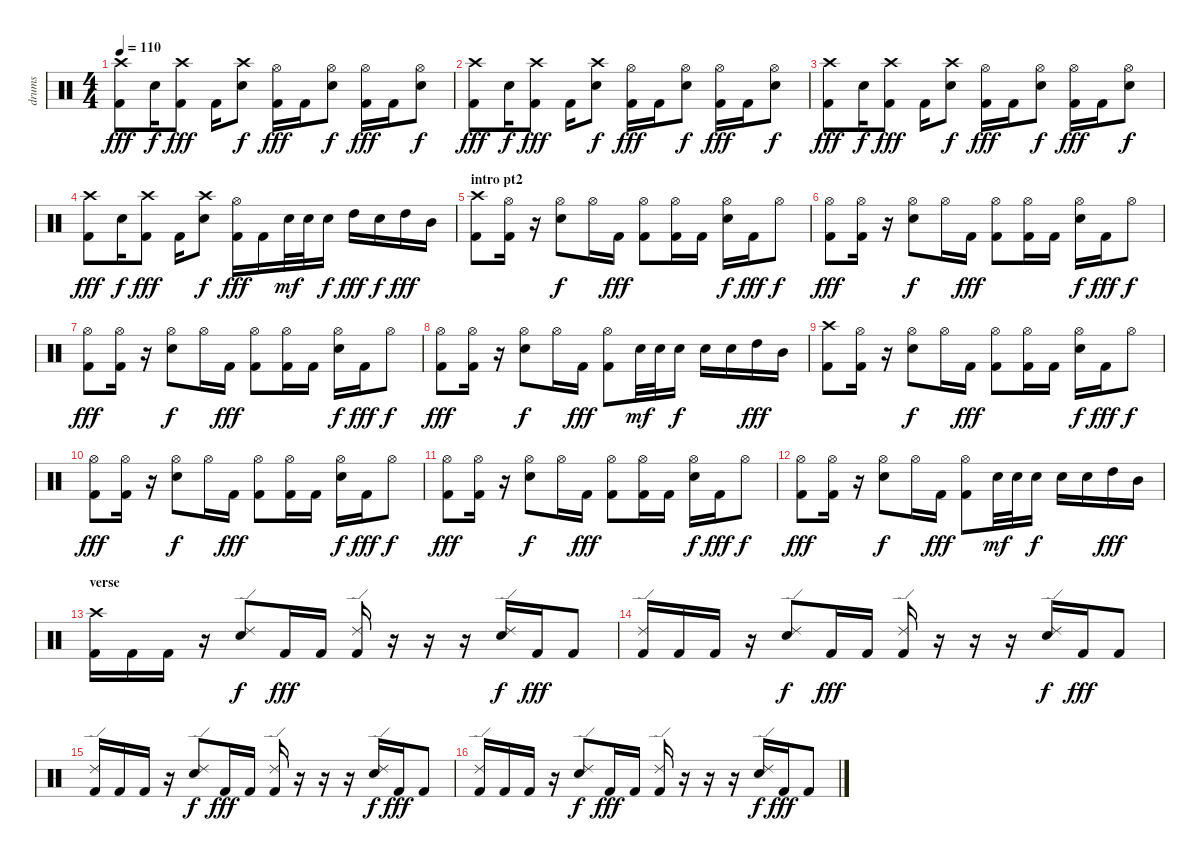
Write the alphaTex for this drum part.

\track ("drums" "drums") {instrument percussion}
\staff {score}
\articulation defaults
\ts (4 4)
\tempo 110
\clef neutral
\ks c
("Crash high (hit)" "Kick (hit) 2").8{dy fff} "Snare (hit) 2".16{dy f} ("Crash high (hit)" "Kick (hit) 2").8{dy fff} "Kick (hit) 2".16 ("Crash high (hit)" "Snare (hit) 2").8{dy f} ("Hi-Hat (open)" "Kick (hit) 2").16{dy fff} "Kick (hit) 2".16 ("Hi-Hat (open)" "Snare (hit) 2").8{dy f} ("Hi-Hat (open)" "Kick (hit) 2").16{dy fff} "Kick (hit) 2".16 ("Hi-Hat (open)" "Snare (hit) 2").8{dy f} |
("Crash high (hit)" "Kick (hit) 2").8{dy fff} "Snare (hit) 2".16{dy f} ("Crash high (hit)" "Kick (hit) 2").8{dy fff} "Kick (hit) 2".16 ("Crash high (hit)" "Snare (hit) 2").8{dy f} ("Hi-Hat (open)" "Kick (hit) 2").16{dy fff} "Kick (hit) 2".16 ("Hi-Hat (open)" "Snare (hit) 2").8{dy f} ("Hi-Hat (open)" "Kick (hit) 2").16{dy fff} "Kick (hit) 2".16 ("Hi-Hat (open)" "Snare (hit) 2").8{dy f} |
("Crash high (hit)" "Kick (hit) 2").8{dy fff} "Snare (hit) 2".16{dy f} ("Crash high (hit)" "Kick (hit) 2").8{dy fff} "Kick (hit) 2".16 ("Crash high (hit)" "Snare (hit) 2").8{dy f} ("Hi-Hat (open)" "Kick (hit) 2").16{dy fff} "Kick (hit) 2".16 ("Hi-Hat (open)" "Snare (hit) 2").8{dy f} ("Hi-Hat (open)" "Kick (hit) 2").16{dy fff} "Kick (hit) 2".16 ("Hi-Hat (open)" "Snare (hit) 2").8{dy f} |
("Crash high (hit)" "Kick (hit) 2").8{dy fff} "Snare (hit) 2".16{dy f} ("Crash high (hit)" "Kick (hit) 2").8{dy fff} "Kick (hit) 2".16 ("Crash high (hit)" "Snare (hit) 2").8{dy f} ("Hi-Hat (open)" "Kick (hit) 2").16{dy fff} "Kick (hit) 2".16 "Snare (hit) 2".32{dy mf} "Snare (hit) 2".32 "Snare (hit) 2".16{dy f} "High Tom (hit)".16{dy fff} "Snare (hit) 2".16{dy f} "High Tom (hit)".16{dy fff} "Mid Tom (hit)".16 |
\section ("" "intro pt2")
("Crash high (hit)" "Kick (hit) 2").8 ("Hi-Hat (open)" "Kick (hit) 2").16 r.16 ("Hi-Hat (open)" "Snare (hit) 2").8{dy f} "Hi-Hat (open)".16 "Kick (hit) 2".16{dy fff} ("Hi-Hat (open)" "Kick (hit) 2").8 ("Hi-Hat (open)" "Kick (hit) 2").16 "Kick (hit) 2".16 ("Hi-Hat (open)" "Snare (hit) 2").16{dy f} "Kick (hit) 2".16{dy fff} "Hi-Hat (open)".8{dy f} |
("Hi-Hat (open)" "Kick (hit) 2").8{dy fff} ("Hi-Hat (open)" "Kick (hit) 2").16 r.16 ("Hi-Hat (open)" "Snare (hit) 2").8{dy f} "Hi-Hat (open)".16 "Kick (hit) 2".16{dy fff} ("Hi-Hat (open)" "Kick (hit) 2").8 ("Hi-Hat (open)" "Kick (hit) 2").16 "Kick (hit) 2".16 ("Hi-Hat (open)" "Snare (hit) 2").16{dy f} "Kick (hit) 2".16{dy fff} "Hi-Hat (open)".8{dy f} |
("Hi-Hat (open)" "Kick (hit) 2").8{dy fff} ("Hi-Hat (open)" "Kick (hit) 2").16 r.16 ("Hi-Hat (open)" "Snare (hit) 2").8{dy f} "Hi-Hat (open)".16 "Kick (hit) 2".16{dy fff} ("Hi-Hat (open)" "Kick (hit) 2").8 ("Hi-Hat (open)" "Kick (hit) 2").16 "Kick (hit) 2".16 ("Hi-Hat (open)" "Snare (hit) 2").16{dy f} "Kick (hit) 2".16{dy fff} "Hi-Hat (open)".8{dy f} |
("Hi-Hat (open)" "Kick (hit) 2").8{dy fff} ("Hi-Hat (open)" "Kick (hit) 2").16 r.16 ("Hi-Hat (open)" "Snare (hit) 2").8{dy f} "Hi-Hat (open)".16 "Kick (hit) 2".16{dy fff} ("Hi-Hat (open)" "Kick (hit) 2").8 "Snare (hit) 2".32{dy mf} "Snare (hit) 2".32 "Snare (hit) 2".16{dy f} "Snare (hit) 2".16 "Snare (hit) 2".16 "High Tom (hit)".16{dy fff} "Mid Tom (hit)".16 |
("Crash high (hit)" "Kick (hit) 2").8 ("Hi-Hat (open)" "Kick (hit) 2").16 r.16 ("Hi-Hat (open)" "Snare (hit) 2").8{dy f} "Hi-Hat (open)".16 "Kick (hit) 2".16{dy fff} ("Hi-Hat (open)" "Kick (hit) 2").8 ("Hi-Hat (open)" "Kick (hit) 2").16 "Kick (hit) 2".16 ("Hi-Hat (open)" "Snare (hit) 2").16{dy f} "Kick (hit) 2".16{dy fff} "Hi-Hat (open)".8{dy f} |
("Hi-Hat (open)" "Kick (hit) 2").8{dy fff} ("Hi-Hat (open)" "Kick (hit) 2").16 r.16 ("Hi-Hat (open)" "Snare (hit) 2").8{dy f} "Hi-Hat (open)".16 "Kick (hit) 2".16{dy fff} ("Hi-Hat (open)" "Kick (hit) 2").8 ("Hi-Hat (open)" "Kick (hit) 2").16 "Kick (hit) 2".16 ("Hi-Hat (open)" "Snare (hit) 2").16{dy f} "Kick (hit) 2".16{dy fff} "Hi-Hat (open)".8{dy f} |
("Hi-Hat (open)" "Kick (hit) 2").8{dy fff} ("Hi-Hat (open)" "Kick (hit) 2").16 r.16 ("Hi-Hat (open)" "Snare (hit) 2").8{dy f} "Hi-Hat (open)".16 "Kick (hit) 2".16{dy fff} ("Hi-Hat (open)" "Kick (hit) 2").8 ("Hi-Hat (open)" "Kick (hit) 2").16 "Kick (hit) 2".16 ("Hi-Hat (open)" "Snare (hit) 2").16{dy f} "Kick (hit) 2".16{dy fff} "Hi-Hat (open)".8{dy f} |
("Hi-Hat (open)" "Kick (hit) 2").8{dy fff} ("Hi-Hat (open)" "Kick (hit) 2").16 r.16 ("Hi-Hat (open)" "Snare (hit) 2").8{dy f} "Hi-Hat (open)".16 "Kick (hit) 2".16{dy fff} ("Hi-Hat (open)" "Kick (hit) 2").8 "Snare (hit) 2".32{dy mf} "Snare (hit) 2".32 "Snare (hit) 2".16{dy f} "Snare (hit) 2".16 "Snare (hit) 2".16 "High Tom (hit)".16{dy fff} "Mid Tom (hit)".16 |
\section ("" "verse")
("Crash high (hit)" "Kick (hit) 2").16 "Kick (hit) 2".16 "Kick (hit) 2".16 r.16 ("Ride (edge) 2" "Snare (hit) 2").8{dy f} "Kick (hit) 2".16{dy fff} "Kick (hit) 2".16 ("Ride (edge) 2" "Kick (hit) 2").16 r.16 r.16 r.16 ("Ride (edge) 2" "Snare (hit) 2").16{dy f} "Kick (hit) 2".16{dy fff} "Kick (hit) 2".8 |
("Ride (edge) 2" "Kick (hit) 2").16 "Kick (hit) 2".16 "Kick (hit) 2".16 r.16 ("Ride (edge) 2" "Snare (hit) 2").8{dy f} "Kick (hit) 2".16{dy fff} "Kick (hit) 2".16 ("Ride (edge) 2" "Kick (hit) 2").16 r.16 r.16 r.16 ("Ride (edge) 2" "Snare (hit) 2").16{dy f} "Kick (hit) 2".16{dy fff} "Kick (hit) 2".8 |
("Ride (edge) 2" "Kick (hit) 2").16 "Kick (hit) 2".16 "Kick (hit) 2".16 r.16 ("Ride (edge) 2" "Snare (hit) 2").8{dy f} "Kick (hit) 2".16{dy fff} "Kick (hit) 2".16 ("Ride (edge) 2" "Kick (hit) 2").16 r.16 r.16 r.16 ("Ride (edge) 2" "Snare (hit) 2").16{dy f} "Kick (hit) 2".16{dy fff} "Kick (hit) 2".8 |
("Ride (edge) 2" "Kick (hit) 2").16 "Kick (hit) 2".16 "Kick (hit) 2".16 r.16 ("Ride (edge) 2" "Snare (hit) 2").8{dy f} "Kick (hit) 2".16{dy fff} "Kick (hit) 2".16 ("Ride (edge) 2" "Kick (hit) 2").16 r.16 r.16 r.16 ("Ride (edge) 2" "Snare (hit) 2").16{dy f} "Kick (hit) 2".16{dy fff} "Kick (hit) 2".8
